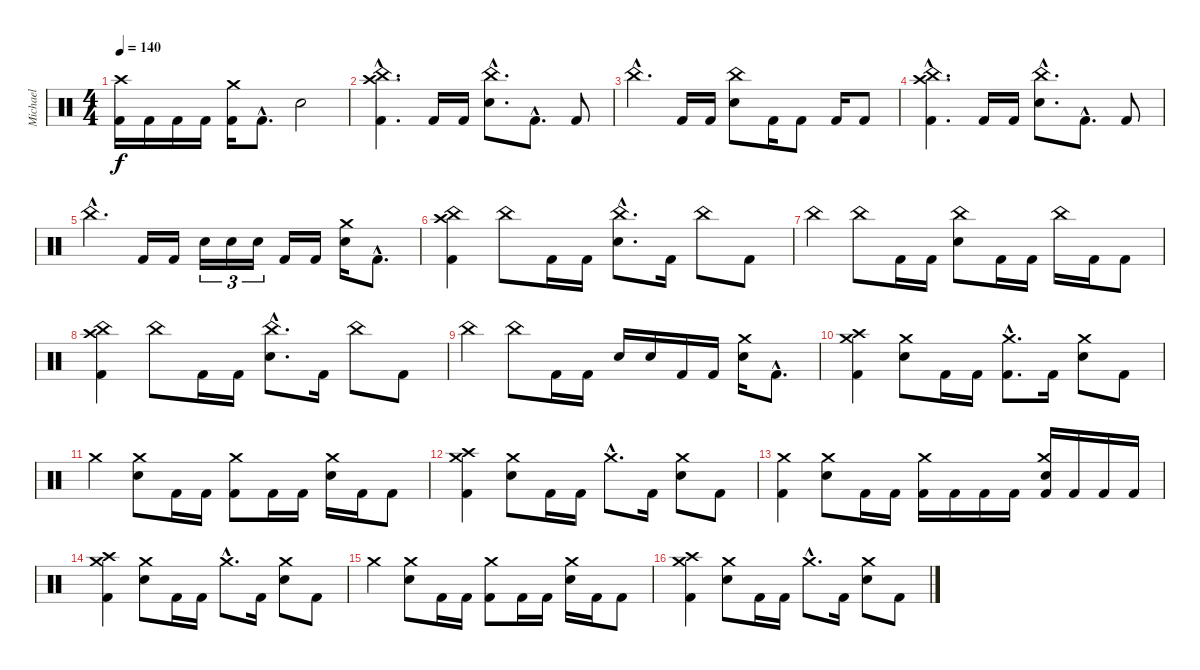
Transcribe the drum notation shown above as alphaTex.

\track ("Michael" "Michael") {instrument percussion}
\staff {score}
\articulation defaults
\ts (4 4)
\tempo 140
\clef neutral
\ks c
("Crash high (hit)" "Kick (hit) 2").16{dy f} "Kick (hit) 2".16 "Kick (hit) 2".16 "Kick (hit) 2".16 ("Crash medium (hit)" "Kick (hit) 2").16 "Kick (hit) 2"{hac}.8{d} "Electric Snare (hit)".2 |
("Crash high (hit)"{hac} "China (hit)"{hac} "Kick (hit) 2"{hac}).4{d} "Kick (hit) 2".16 "Kick (hit) 2".16 ("China (hit)"{hac} "Electric Snare (hit)"{hac}).8{d} "Kick (hit) 2"{hac}.8{d} "Kick (hit) 2".8 |
"China (hit)"{hac}.4{d} "Kick (hit) 2".16 "Kick (hit) 2".16 ("China (hit)" "Electric Snare (hit)").8 "Kick (hit) 2".16 "Kick (hit) 2".8 "Kick (hit) 2".16 "Kick (hit) 2".8 |
("Crash high (hit)"{hac} "China (hit)"{hac} "Kick (hit) 2"{hac}).4{d} "Kick (hit) 2".16 "Kick (hit) 2".16 ("China (hit)"{hac} "Electric Snare (hit)"{hac}).8{d} "Kick (hit) 2"{hac}.8{d} "Kick (hit) 2".8 |
"China (hit)"{hac}.4{d} "Kick (hit) 2".16 "Kick (hit) 2".16 "Electric Snare (hit)".16{tu (3 2)} "Electric Snare (hit)".16{tu (3 2)} "Electric Snare (hit)".16{tu (3 2)} "Kick (hit) 2".16 "Kick (hit) 2".16 ("Crash medium (hit)" "Electric Snare (hit)").16 "Kick (hit) 2"{hac}.8{d} |
("Crash high (hit)" "China (hit)" "Kick (hit) 2").4 "China (hit)".8 "Kick (hit) 2".16 "Kick (hit) 2".16 ("China (hit)"{hac} "Electric Snare (hit)"{hac}).8{d} "Kick (hit) 2".16 "China (hit)".8 "Kick (hit) 2".8 |
"China (hit)".4 "China (hit)".8 "Kick (hit) 2".16 "Kick (hit) 2".16 ("China (hit)" "Electric Snare (hit)").8 "Kick (hit) 2".16 "Kick (hit) 2".16 "China (hit)".16 "Kick (hit) 2".16 "Kick (hit) 2".8 |
("Crash high (hit)" "China (hit)" "Kick (hit) 2").4 "China (hit)".8 "Kick (hit) 2".16 "Kick (hit) 2".16 ("China (hit)"{hac} "Electric Snare (hit)"{hac}).8{d} "Kick (hit) 2".16 "China (hit)".8 "Kick (hit) 2".8 |
"China (hit)".4 "China (hit)".8 "Kick (hit) 2".16 "Kick (hit) 2".16 "Electric Snare (hit)".16 "Electric Snare (hit)".16 "Kick (hit) 2".16 "Kick (hit) 2".16 ("Crash medium (hit)" "Electric Snare (hit)").16 "Kick (hit) 2"{hac}.8{d} |
("Crash high (hit)" "Crash medium (hit)" "Kick (hit) 2").4 ("Crash medium (hit)" "Electric Snare (hit)").8 "Kick (hit) 2".16 "Kick (hit) 2".16 ("Crash medium (hit)"{hac} "Kick (hit) 2"{hac}).8{d} "Kick (hit) 2".16 ("Crash medium (hit)" "Electric Snare (hit)").8 "Kick (hit) 2".8 |
"Crash medium (hit)".4 ("Crash medium (hit)" "Electric Snare (hit)").8 "Kick (hit) 2".16 "Kick (hit) 2".16 ("Crash medium (hit)" "Kick (hit) 2").8 "Kick (hit) 2".16 "Kick (hit) 2".16 ("Crash medium (hit)" "Electric Snare (hit)").16 "Kick (hit) 2".16 "Kick (hit) 2".8 |
("Crash high (hit)" "Crash medium (hit)" "Kick (hit) 2").4 ("Crash medium (hit)" "Electric Snare (hit)").8 "Kick (hit) 2".16 "Kick (hit) 2".16 "Crash medium (hit)"{hac}.8{d} "Kick (hit) 2".16 ("Crash medium (hit)" "Electric Snare (hit)").8 "Kick (hit) 2".8 |
("Crash medium (hit)" "Kick (hit) 2").4 ("Crash medium (hit)" "Electric Snare (hit)").8 "Kick (hit) 2".16 "Kick (hit) 2".16 ("Crash medium (hit)" "Kick (hit) 2").16 "Kick (hit) 2".16 "Kick (hit) 2".16 "Kick (hit) 2".16 ("Crash medium (hit)" "Electric Snare (hit)" "Kick (hit) 2").16 "Kick (hit) 2".16 "Kick (hit) 2".16 "Kick (hit) 2".16 |
("Crash high (hit)" "Crash medium (hit)" "Kick (hit) 2").4 ("Crash medium (hit)" "Electric Snare (hit)").8 "Kick (hit) 2".16 "Kick (hit) 2".16 "Crash medium (hit)"{hac}.8{d} "Kick (hit) 2".16 ("Crash medium (hit)" "Electric Snare (hit)").8 "Kick (hit) 2".8 |
"Crash medium (hit)".4 ("Crash medium (hit)" "Electric Snare (hit)").8 "Kick (hit) 2".16 "Kick (hit) 2".16 ("Crash medium (hit)" "Kick (hit) 2").8 "Kick (hit) 2".16 "Kick (hit) 2".16 ("Crash medium (hit)" "Electric Snare (hit)").16 "Kick (hit) 2".16 "Kick (hit) 2".8 |
("Crash high (hit)" "Crash medium (hit)" "Kick (hit) 2").4 ("Crash medium (hit)" "Electric Snare (hit)").8 "Kick (hit) 2".16 "Kick (hit) 2".16 "Crash medium (hit)"{hac}.8{d} "Kick (hit) 2".16 ("Crash medium (hit)" "Electric Snare (hit)").8 "Kick (hit) 2".8
